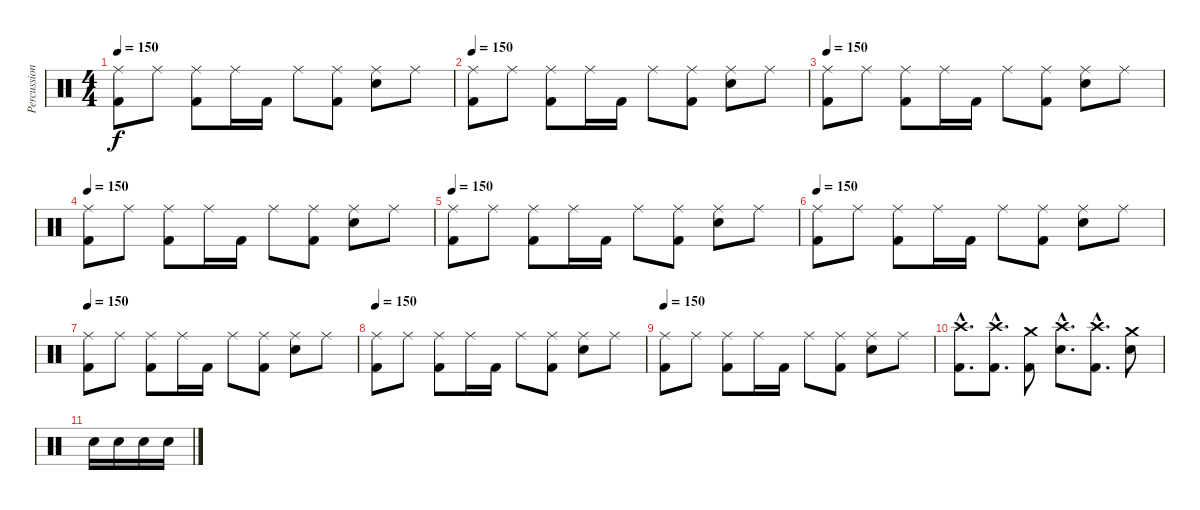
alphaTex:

\track ("Percussions" "Percussion") {instrument percussion}
\staff {score}
\articulation defaults
\ts (4 4)
\tempo 150
\clef neutral
\ks c
("Ride (middle)" "Kick (hit) 2").8{dy f} "Ride (middle)".8 ("Ride (middle)" "Kick (hit) 2").8 "Ride (middle)".16 "Kick (hit) 2".16 "Ride (middle)".8 ("Ride (middle)" "Kick (hit) 2").8 ("Ride (middle)" "Snare (hit) 2").8 "Ride (middle)".8 |
\tempo 150
("Ride (middle)" "Kick (hit) 2").8 "Ride (middle)".8 ("Ride (middle)" "Kick (hit) 2").8 "Ride (middle)".16 "Kick (hit) 2".16 "Ride (middle)".8 ("Ride (middle)" "Kick (hit) 2").8 ("Ride (middle)" "Snare (hit) 2").8 "Ride (middle)".8 |
\tempo 150
("Ride (middle)" "Kick (hit) 2").8 "Ride (middle)".8 ("Ride (middle)" "Kick (hit) 2").8 "Ride (middle)".16 "Kick (hit) 2".16 "Ride (middle)".8 ("Ride (middle)" "Kick (hit) 2").8 ("Ride (middle)" "Snare (hit) 2").8 "Ride (middle)".8 |
\tempo 150
("Ride (middle)" "Kick (hit) 2").8 "Ride (middle)".8 ("Ride (middle)" "Kick (hit) 2").8 "Ride (middle)".16 "Kick (hit) 2".16 "Ride (middle)".8 ("Ride (middle)" "Kick (hit) 2").8 ("Ride (middle)" "Snare (hit) 2").8 "Ride (middle)".8 |
\tempo 150
("Ride (middle)" "Kick (hit) 2").8 "Ride (middle)".8 ("Ride (middle)" "Kick (hit) 2").8 "Ride (middle)".16 "Kick (hit) 2".16 "Ride (middle)".8 ("Ride (middle)" "Kick (hit) 2").8 ("Ride (middle)" "Snare (hit) 2").8 "Ride (middle)".8 |
\tempo 150
("Ride (middle)" "Kick (hit) 2").8 "Ride (middle)".8 ("Ride (middle)" "Kick (hit) 2").8 "Ride (middle)".16 "Kick (hit) 2".16 "Ride (middle)".8 ("Ride (middle)" "Kick (hit) 2").8 ("Ride (middle)" "Snare (hit) 2").8 "Ride (middle)".8 |
\tempo 150
("Ride (middle)" "Kick (hit) 2").8 "Ride (middle)".8 ("Ride (middle)" "Kick (hit) 2").8 "Ride (middle)".16 "Kick (hit) 2".16 "Ride (middle)".8 ("Ride (middle)" "Kick (hit) 2").8 ("Ride (middle)" "Snare (hit) 2").8 "Ride (middle)".8 |
\tempo 150
("Ride (middle)" "Kick (hit) 2").8 "Ride (middle)".8 ("Ride (middle)" "Kick (hit) 2").8 "Ride (middle)".16 "Kick (hit) 2".16 "Ride (middle)".8 ("Ride (middle)" "Kick (hit) 2").8 ("Ride (middle)" "Snare (hit) 2").8 "Ride (middle)".8 |
\tempo 150
("Ride (middle)" "Kick (hit) 2").8 "Ride (middle)".8 ("Ride (middle)" "Kick (hit) 2").8 "Ride (middle)".16 "Kick (hit) 2".16 "Ride (middle)".8 ("Ride (middle)" "Kick (hit) 2").8 ("Ride (middle)" "Snare (hit) 2").8 "Ride (middle)".8 |
("Crash high (hit)"{hac} "Kick (hit) 2"{hac}).8{d} ("Crash high (hit)"{hac} "Kick (hit) 2"{hac}).8{d} ("Crash medium (hit)" "Kick (hit) 2").8 ("Crash high (hit)"{hac} "Snare (hit) 2"{hac}).8{d} ("Crash high (hit)"{hac} "Kick (hit) 2"{hac}).8{d} ("Crash medium (hit)" "Snare (hit) 2").8 |
"Snare (hit) 2".16 "Snare (hit) 2".16 "Snare (hit) 2".16 "Snare (hit) 2".16
